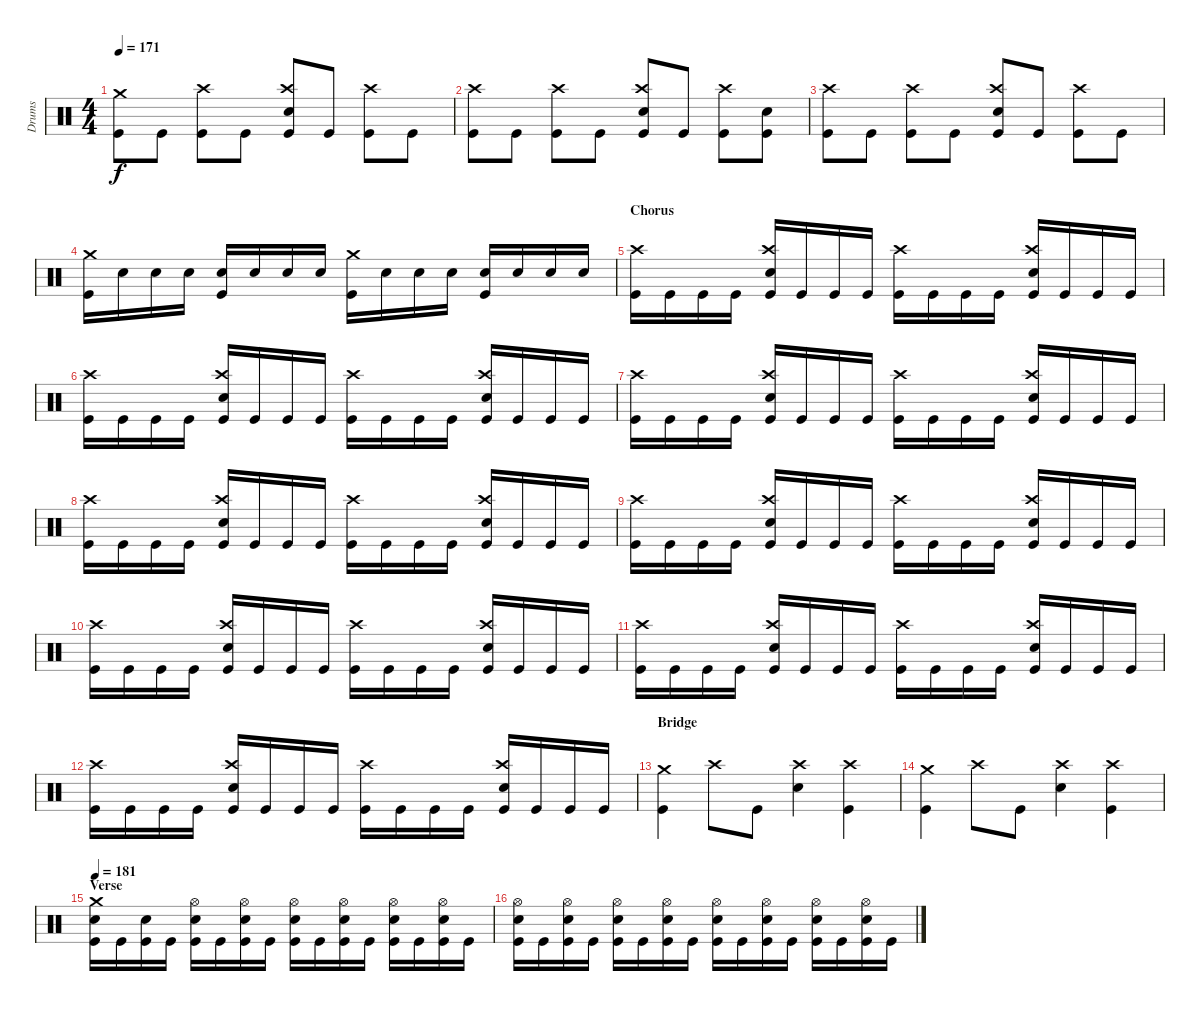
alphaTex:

\track ("Drums" "Drums") {instrument percussion}
\staff {score}
\articulation defaults
\ts (4 4)
\tempo 171
\clef neutral
\ks c
("Crash medium (hit)" "Kick (hit)").8{dy f} "Kick (hit)".8 ("Crash high (hit)" "Kick (hit)").8 "Kick (hit)".8 ("Crash high (hit)" "Snare (hit) 2" "Kick (hit)").8 "Kick (hit)".8 ("Crash high (hit)" "Kick (hit)").8 "Kick (hit)".8 |
("Crash high (hit)" "Kick (hit)").8 "Kick (hit)".8 ("Crash high (hit)" "Kick (hit)").8 "Kick (hit)".8 ("Crash high (hit)" "Snare (hit) 2" "Kick (hit)").8 "Kick (hit)".8 ("Crash high (hit)" "Kick (hit)").8 ("Snare (hit) 2" "Kick (hit)").8 |
("Crash high (hit)" "Kick (hit)").8 "Kick (hit)".8 ("Crash high (hit)" "Kick (hit)").8 "Kick (hit)".8 ("Crash high (hit)" "Snare (hit) 2" "Kick (hit)").8 "Kick (hit)".8 ("Crash high (hit)" "Kick (hit)").8 "Kick (hit)".8 |
("Crash medium (hit)" "Kick (hit)").16 "Snare (hit) 2".16 "Snare (hit) 2".16 "Snare (hit) 2".16 ("Snare (hit) 2" "Kick (hit)").16 "Snare (hit) 2".16 "Snare (hit) 2".16 "Snare (hit) 2".16 ("Crash medium (hit)" "Kick (hit)").16 "Snare (hit) 2".16 "Snare (hit) 2".16 "Snare (hit) 2".16 ("Snare (hit) 2" "Kick (hit)").16 "Snare (hit) 2".16 "Snare (hit) 2".16 "Snare (hit) 2".16 |
\section ("" "Chorus")
("Crash high (hit)" "Kick (hit)").16 "Kick (hit)".16 "Kick (hit)".16 "Kick (hit)".16 ("Crash high (hit)" "Snare (hit) 2" "Kick (hit)").16 "Kick (hit)".16 "Kick (hit)".16 "Kick (hit)".16 ("Crash high (hit)" "Kick (hit)").16 "Kick (hit)".16 "Kick (hit)".16 "Kick (hit)".16 ("Crash high (hit)" "Snare (hit) 2" "Kick (hit)").16 "Kick (hit)".16 "Kick (hit)".16 "Kick (hit)".16 |
("Crash high (hit)" "Kick (hit)").16 "Kick (hit)".16 "Kick (hit)".16 "Kick (hit)".16 ("Crash high (hit)" "Snare (hit) 2" "Kick (hit)").16 "Kick (hit)".16 "Kick (hit)".16 "Kick (hit)".16 ("Crash high (hit)" "Kick (hit)").16 "Kick (hit)".16 "Kick (hit)".16 "Kick (hit)".16 ("Crash high (hit)" "Snare (hit) 2" "Kick (hit)").16 "Kick (hit)".16 "Kick (hit)".16 "Kick (hit)".16 |
("Crash high (hit)" "Kick (hit)").16 "Kick (hit)".16 "Kick (hit)".16 "Kick (hit)".16 ("Crash high (hit)" "Snare (hit) 2" "Kick (hit)").16 "Kick (hit)".16 "Kick (hit)".16 "Kick (hit)".16 ("Crash high (hit)" "Kick (hit)").16 "Kick (hit)".16 "Kick (hit)".16 "Kick (hit)".16 ("Crash high (hit)" "Snare (hit) 2" "Kick (hit)").16 "Kick (hit)".16 "Kick (hit)".16 "Kick (hit)".16 |
("Crash high (hit)" "Kick (hit)").16 "Kick (hit)".16 "Kick (hit)".16 "Kick (hit)".16 ("Crash high (hit)" "Snare (hit) 2" "Kick (hit)").16 "Kick (hit)".16 "Kick (hit)".16 "Kick (hit)".16 ("Crash high (hit)" "Kick (hit)").16 "Kick (hit)".16 "Kick (hit)".16 "Kick (hit)".16 ("Crash high (hit)" "Snare (hit) 2" "Kick (hit)").16 "Kick (hit)".16 "Kick (hit)".16 "Kick (hit)".16 |
("Crash high (hit)" "Kick (hit)").16 "Kick (hit)".16 "Kick (hit)".16 "Kick (hit)".16 ("Crash high (hit)" "Snare (hit) 2" "Kick (hit)").16 "Kick (hit)".16 "Kick (hit)".16 "Kick (hit)".16 ("Crash high (hit)" "Kick (hit)").16 "Kick (hit)".16 "Kick (hit)".16 "Kick (hit)".16 ("Crash high (hit)" "Snare (hit) 2" "Kick (hit)").16 "Kick (hit)".16 "Kick (hit)".16 "Kick (hit)".16 |
("Crash high (hit)" "Kick (hit)").16 "Kick (hit)".16 "Kick (hit)".16 "Kick (hit)".16 ("Crash high (hit)" "Snare (hit) 2" "Kick (hit)").16 "Kick (hit)".16 "Kick (hit)".16 "Kick (hit)".16 ("Crash high (hit)" "Kick (hit)").16 "Kick (hit)".16 "Kick (hit)".16 "Kick (hit)".16 ("Crash high (hit)" "Snare (hit) 2" "Kick (hit)").16 "Kick (hit)".16 "Kick (hit)".16 "Kick (hit)".16 |
("Crash high (hit)" "Kick (hit)").16 "Kick (hit)".16 "Kick (hit)".16 "Kick (hit)".16 ("Crash high (hit)" "Snare (hit) 2" "Kick (hit)").16 "Kick (hit)".16 "Kick (hit)".16 "Kick (hit)".16 ("Crash high (hit)" "Kick (hit)").16 "Kick (hit)".16 "Kick (hit)".16 "Kick (hit)".16 ("Crash high (hit)" "Snare (hit) 2" "Kick (hit)").16 "Kick (hit)".16 "Kick (hit)".16 "Kick (hit)".16 |
("Crash high (hit)" "Kick (hit)").16 "Kick (hit)".16 "Kick (hit)".16 "Kick (hit)".16 ("Crash high (hit)" "Snare (hit) 2" "Kick (hit)").16 "Kick (hit)".16 "Kick (hit)".16 "Kick (hit)".16 ("Crash high (hit)" "Kick (hit)").16 "Kick (hit)".16 "Kick (hit)".16 "Kick (hit)".16 ("Crash high (hit)" "Snare (hit) 2" "Kick (hit)").16 "Kick (hit)".16 "Kick (hit)".16 "Kick (hit)".16 |
\section ("" "Bridge")
("Crash medium (hit)" "Kick (hit)").4 "Crash high (hit)".8 "Kick (hit)".8 ("Crash high (hit)" "Snare (hit) 2").4 ("Crash high (hit)" "Kick (hit)").4 |
("Crash medium (hit)" "Kick (hit)").4 "Crash high (hit)".8 "Kick (hit)".8 ("Crash high (hit)" "Snare (hit) 2").4 ("Crash high (hit)" "Kick (hit)").4 |
\section ("" "Verse")
\tempo 181
("Crash medium (hit)" "Snare (hit) 2" "Kick (hit)").16 "Kick (hit)".16 ("Snare (hit) 2" "Kick (hit)").16 "Kick (hit)".16 ("Hi-Hat (open)" "Snare (hit) 2" "Kick (hit)").16 "Kick (hit)".16 ("Hi-Hat (open)" "Snare (hit) 2" "Kick (hit)").16 "Kick (hit)".16 ("Hi-Hat (open)" "Snare (hit) 2" "Kick (hit)").16 "Kick (hit)".16 ("Hi-Hat (open)" "Snare (hit) 2" "Kick (hit)").16 "Kick (hit)".16 ("Hi-Hat (open)" "Snare (hit) 2" "Kick (hit)").16 "Kick (hit)".16 ("Hi-Hat (open)" "Snare (hit) 2" "Kick (hit)").16 "Kick (hit)".16 |
("Hi-Hat (open)" "Snare (hit) 2" "Kick (hit)").16 "Kick (hit)".16 ("Hi-Hat (open)" "Snare (hit) 2" "Kick (hit)").16 "Kick (hit)".16 ("Hi-Hat (open)" "Snare (hit) 2" "Kick (hit)").16 "Kick (hit)".16 ("Hi-Hat (open)" "Snare (hit) 2" "Kick (hit)").16 "Kick (hit)".16 ("Hi-Hat (open)" "Snare (hit) 2" "Kick (hit)").16 "Kick (hit)".16 ("Hi-Hat (open)" "Snare (hit) 2" "Kick (hit)").16 "Kick (hit)".16 ("Hi-Hat (open)" "Snare (hit) 2" "Kick (hit)").16 "Kick (hit)".16 ("Hi-Hat (open)" "Snare (hit) 2" "Kick (hit)").16 "Kick (hit)".16
